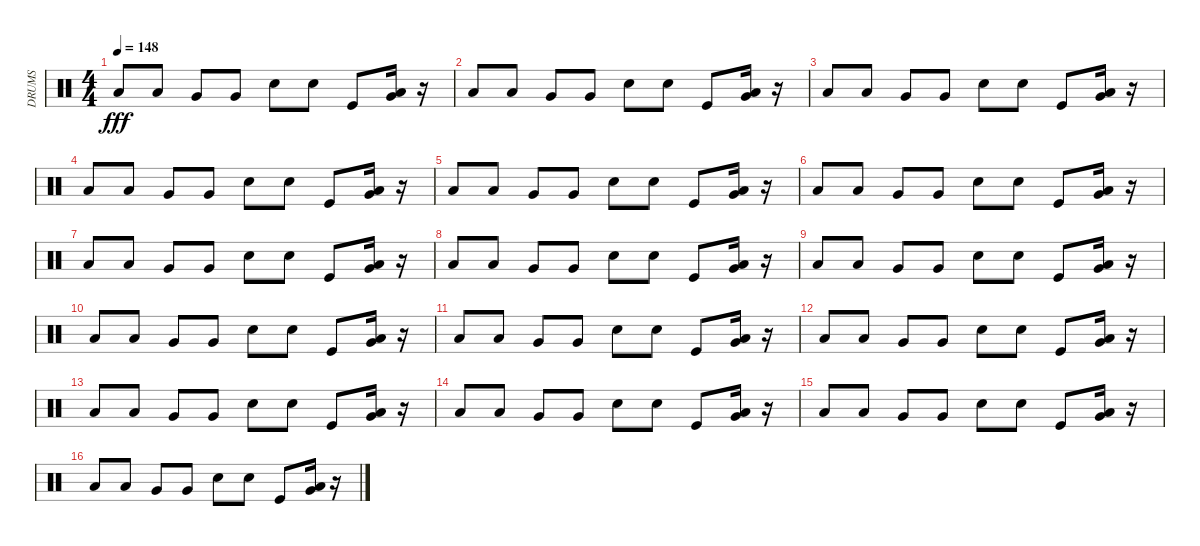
\track ("DRUMS" "DRUMS") {instrument percussion}
\staff {score}
\articulation defaults
\ts (4 4)
\tempo 148
\clef neutral
\ks c "Low Tom (hit)".8{dy fff} "Low Tom (hit)".8 "Very Low Tom (hit)".8 "Very Low Tom (hit)".8 "Snare (hit) 2".8 "Snare (hit) 2".8 "Kick (hit)".8
("Very Low Tom (hit)" "Low Tom (hit)").16 r.16 |
"Low Tom (hit)".8 "Low Tom (hit)".8 "Very Low Tom (hit)".8 "Very Low Tom (hit)".8 "Snare (hit) 2".8 "Snare (hit) 2".8 "Kick (hit)".8 ("Very Low Tom (hit)" "Low Tom (hit)").16 r.16 |
"Low Tom (hit)".8 "Low Tom (hit)".8 "Very Low Tom (hit)".8 "Very Low Tom (hit)".8 "Snare (hit) 2".8 "Snare (hit) 2".8 "Kick (hit)".8 ("Very Low Tom (hit)" "Low Tom (hit)").16 r.16 |
"Low Tom (hit)".8 "Low Tom (hit)".8 "Very Low Tom (hit)".8 "Very Low Tom (hit)".8 "Snare (hit) 2".8 "Snare (hit) 2".8 "Kick (hit)".8 ("Very Low Tom (hit)" "Low Tom (hit)").16 r.16 |
"Low Tom (hit)".8 "Low Tom (hit)".8 "Very Low Tom (hit)".8 "Very Low Tom (hit)".8 "Snare (hit) 2".8 "Snare (hit) 2".8 "Kick (hit)".8 ("Very Low Tom (hit)" "Low Tom (hit)").16 r.16 |
"Low Tom (hit)".8 "Low Tom (hit)".8 "Very Low Tom (hit)".8 "Very Low Tom (hit)".8 "Snare (hit) 2".8 "Snare (hit) 2".8 "Kick (hit)".8 ("Very Low Tom (hit)" "Low Tom (hit)").16 r.16 |
"Low Tom (hit)".8 "Low Tom (hit)".8 "Very Low Tom (hit)".8 "Very Low Tom (hit)".8 "Snare (hit) 2".8 "Snare (hit) 2".8 "Kick (hit)".8 ("Very Low Tom (hit)" "Low Tom (hit)").16 r.16 |
"Low Tom (hit)".8 "Low Tom (hit)".8 "Very Low Tom (hit)".8 "Very Low Tom (hit)".8 "Snare (hit) 2".8 "Snare (hit) 2".8 "Kick (hit)".8 ("Very Low Tom (hit)" "Low Tom (hit)").16 r.16 |
"Low Tom (hit)".8 "Low Tom (hit)".8 "Very Low Tom (hit)".8 "Very Low Tom (hit)".8 "Snare (hit) 2".8 "Snare (hit) 2".8 "Kick (hit)".8 ("Very Low Tom (hit)" "Low Tom (hit)").16 r.16 |
"Low Tom (hit)".8 "Low Tom (hit)".8 "Very Low Tom (hit)".8 "Very Low Tom (hit)".8 "Snare (hit) 2".8 "Snare (hit) 2".8 "Kick (hit)".8 ("Very Low Tom (hit)" "Low Tom (hit)").16 r.16 |
"Low Tom (hit)".8 "Low Tom (hit)".8 "Very Low Tom (hit)".8 "Very Low Tom (hit)".8 "Snare (hit) 2".8 "Snare (hit) 2".8 "Kick (hit)".8 ("Very Low Tom (hit)" "Low Tom (hit)").16 r.16 |
"Low Tom (hit)".8 "Low Tom (hit)".8 "Very Low Tom (hit)".8 "Very Low Tom (hit)".8 "Snare (hit) 2".8 "Snare (hit) 2".8 "Kick (hit)".8 ("Very Low Tom (hit)" "Low Tom (hit)").16 r.16 |
"Low Tom (hit)".8 "Low Tom (hit)".8 "Very Low Tom (hit)".8 "Very Low Tom (hit)".8 "Snare (hit) 2".8 "Snare (hit) 2".8 "Kick (hit)".8 ("Very Low Tom (hit)" "Low Tom (hit)").16 r.16 |
"Low Tom (hit)".8 "Low Tom (hit)".8 "Very Low Tom (hit)".8 "Very Low Tom (hit)".8 "Snare (hit) 2".8 "Snare (hit) 2".8 "Kick (hit)".8 ("Very Low Tom (hit)" "Low Tom (hit)").16 r.16 |
"Low Tom (hit)".8 "Low Tom (hit)".8 "Very Low Tom (hit)".8 "Very Low Tom (hit)".8 "Snare (hit) 2".8 "Snare (hit) 2".8 "Kick (hit)".8 ("Very Low Tom (hit)" "Low Tom (hit)").16 r.16 |
"Low Tom (hit)".8 "Low Tom (hit)".8 "Very Low Tom (hit)".8 "Very Low Tom (hit)".8 "Snare (hit) 2".8 "Snare (hit) 2".8 "Kick (hit)".8 ("Very Low Tom (hit)" "Low Tom (hit)").16 r.16
